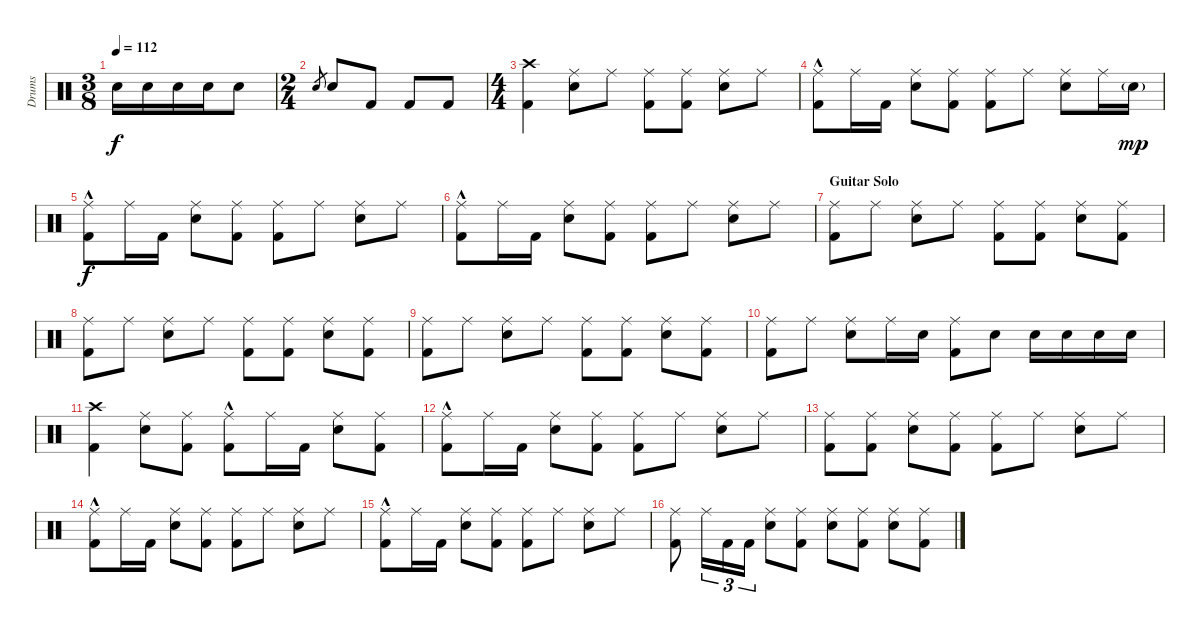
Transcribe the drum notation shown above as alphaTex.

\track ("Drums" "Drums") {instrument percussion}
\staff {score}
\articulation defaults
\ts (3 8)
\tempo 112
\clef neutral
\ks c "Electric Snare (hit)".16{dy f} "Electric Snare (hit)".16 "Electric Snare (hit)".16 "Electric Snare (hit)".16 "Electric Snare (hit)".8
|
\ts (2 4)
"Electric Snare (hit)"{h}.8{gr} "Electric Snare (hit)".8 "Kick (hit) 2".8 "Kick (hit) 2".8 "Kick (hit) 2".8 |
\ts (4 4)
("Crash high (hit)" "Kick (hit) 2").4 ("Ride (middle)" "Electric Snare (hit)").8 "Ride (middle)".8 ("Ride (middle)" "Kick (hit) 2").8 ("Ride (middle)" "Kick (hit) 2").8 ("Ride (middle)" "Electric Snare (hit)").8 "Ride (middle)".8 |
("Ride (middle)" "Kick (hit) 2"{hac}).8 "Ride (middle)".16 "Kick (hit) 2".16 ("Ride (middle)" "Electric Snare (hit)").8 ("Ride (middle)" "Kick (hit) 2").8 ("Ride (middle)" "Kick (hit) 2").8 "Ride (middle)".8 ("Ride (middle)" "Electric Snare (hit)").8 "Ride (middle)".16 "Electric Snare (hit)"{g}.16{dy mp} |
("Ride (middle)" "Kick (hit) 2"{hac}).8{dy f} "Ride (middle)".16 "Kick (hit) 2".16 ("Ride (middle)" "Electric Snare (hit)").8 ("Ride (middle)" "Kick (hit) 2").8 ("Ride (middle)" "Kick (hit) 2").8 "Ride (middle)".8 ("Ride (middle)" "Electric Snare (hit)").8 "Ride (middle)".8 |
("Ride (middle)" "Kick (hit) 2"{hac}).8 "Ride (middle)".16 "Kick (hit) 2".16 ("Ride (middle)" "Electric Snare (hit)").8 ("Ride (middle)" "Kick (hit) 2").8 ("Ride (middle)" "Kick (hit) 2").8 "Ride (middle)".8 ("Ride (middle)" "Electric Snare (hit)").8 "Ride (middle)".8 |
\section ("" "Guitar Solo")
("Ride (middle)" "Kick (hit) 2").8 "Ride (middle)".8 ("Ride (middle)" "Electric Snare (hit)").8 "Ride (middle)".8 ("Ride (middle)" "Kick (hit) 2").8 ("Ride (middle)" "Kick (hit) 2").8 ("Ride (middle)" "Electric Snare (hit)").8 ("Ride (middle)" "Kick (hit) 2").8 |
("Ride (middle)" "Kick (hit) 2").8 "Ride (middle)".8 ("Ride (middle)" "Electric Snare (hit)").8 "Ride (middle)".8 ("Ride (middle)" "Kick (hit) 2").8 ("Ride (middle)" "Kick (hit) 2").8 ("Ride (middle)" "Electric Snare (hit)").8 ("Ride (middle)" "Kick (hit) 2").8 |
("Ride (middle)" "Kick (hit) 2").8 "Ride (middle)".8 ("Ride (middle)" "Electric Snare (hit)").8 "Ride (middle)".8 ("Ride (middle)" "Kick (hit) 2").8 ("Ride (middle)" "Kick (hit) 2").8 ("Ride (middle)" "Electric Snare (hit)").8 ("Ride (middle)" "Kick (hit) 2").8 |
("Ride (middle)" "Kick (hit) 2").8 "Ride (middle)".8 ("Ride (middle)" "Electric Snare (hit)").8 "Ride (middle)".16 "Electric Snare (hit)".16 ("Ride (middle)" "Kick (hit) 2").8 "Electric Snare (hit)".8 "Electric Snare (hit)".16 "Electric Snare (hit)".16 "Electric Snare (hit)".16 "Electric Snare (hit)".16 |
("Crash high (hit)" "Kick (hit) 2").4 ("Ride (middle)" "Electric Snare (hit)").8 ("Ride (middle)" "Kick (hit) 2").8 ("Ride (middle)" "Kick (hit) 2"{hac}).8 "Ride (middle)".16 "Kick (hit) 2".16 ("Ride (middle)" "Electric Snare (hit)").8 ("Ride (middle)" "Kick (hit) 2").8 |
("Ride (middle)" "Kick (hit) 2"{hac}).8 "Ride (middle)".16 "Kick (hit) 2".16 ("Ride (middle)" "Electric Snare (hit)").8 ("Ride (middle)" "Kick (hit) 2").8 ("Ride (middle)" "Kick (hit) 2").8 "Ride (middle)".8 ("Ride (middle)" "Electric Snare (hit)").8 "Ride (middle)".8 |
("Ride (middle)" "Kick (hit) 2").8 ("Ride (middle)" "Kick (hit) 2").8 ("Ride (middle)" "Electric Snare (hit)").8 ("Ride (middle)" "Kick (hit) 2").8 ("Ride (middle)" "Kick (hit) 2").8 "Ride (middle)".8 ("Ride (middle)" "Electric Snare (hit)").8 "Ride (middle)".8 |
("Ride (middle)" "Kick (hit) 2"{hac}).8 "Ride (middle)".16 "Kick (hit) 2".16 ("Ride (middle)" "Electric Snare (hit)").8 ("Ride (middle)" "Kick (hit) 2").8 ("Ride (middle)" "Kick (hit) 2").8 "Ride (middle)".8 ("Ride (middle)" "Electric Snare (hit)").8 "Ride (middle)".8 |
("Ride (middle)" "Kick (hit) 2"{hac}).8 "Ride (middle)".16 "Kick (hit) 2".16 ("Ride (middle)" "Electric Snare (hit)").8 ("Ride (middle)" "Kick (hit) 2").8 ("Ride (middle)" "Kick (hit) 2").8 "Ride (middle)".8 ("Ride (middle)" "Electric Snare (hit)").8 "Ride (middle)".8 |
("Ride (middle)" "Kick (hit) 2").8 "Ride (middle)".16{tu (3 2)} "Kick (hit) 2".16{tu (3 2)} "Kick (hit) 2".16{tu (3 2)} ("Ride (middle)" "Electric Snare (hit)").8 ("Ride (middle)" "Kick (hit) 2").8 ("Ride (middle)" "Electric Snare (hit)").8 ("Ride (middle)" "Kick (hit) 2").8 ("Ride (middle)" "Electric Snare (hit)").8 ("Ride (middle)" "Kick (hit) 2").8
